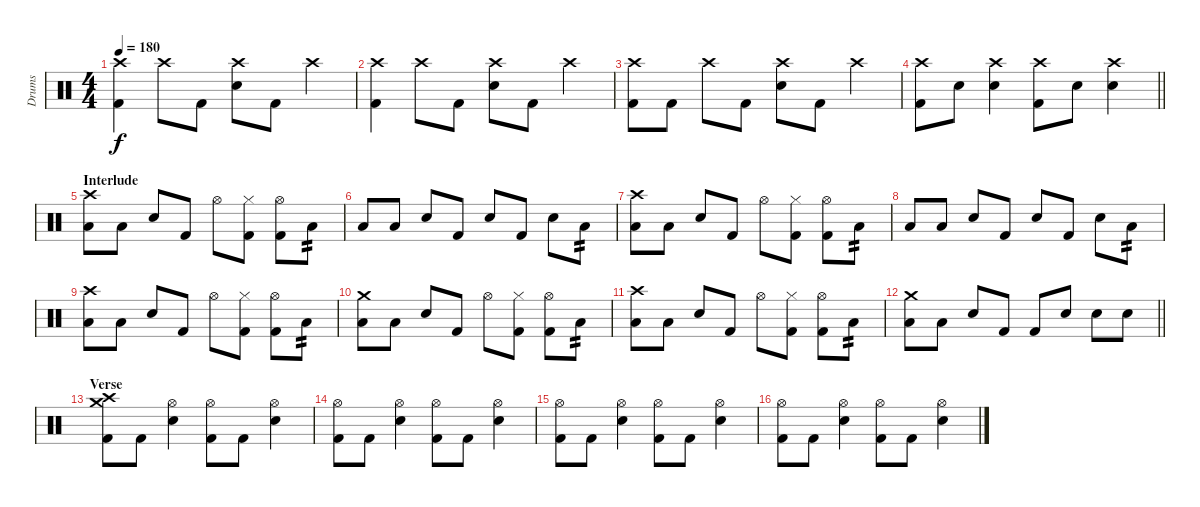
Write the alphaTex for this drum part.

\track ("Drums" "Drums") {instrument percussion}
\staff {score}
\articulation defaults
\ts (4 4)
\tempo 180
\clef neutral
\ks c
("Crash high (hit)" "Kick (hit) 2").4{dy f} "Crash high (hit)".8 "Kick (hit) 2".8 ("Electric Snare (hit)" "Crash high (hit)").8 "Kick (hit) 2".8 "Crash high (hit)".4 |
("Crash high (hit)" "Kick (hit) 2").4 "Crash high (hit)".8 "Kick (hit) 2".8 ("Electric Snare (hit)" "Crash high (hit)").8 "Kick (hit) 2".8 "Crash high (hit)".4 |
("Crash high (hit)" "Kick (hit) 2").8 "Kick (hit) 2".8 "Crash high (hit)".8 "Kick (hit) 2".8 ("Electric Snare (hit)" "Crash high (hit)").8 "Kick (hit) 2".8 "Crash high (hit)".4 |
\barLineRight lightlight
("Crash high (hit)" "Kick (hit) 2").8 "Electric Snare (hit)".8 ("Electric Snare (hit)" "Crash high (hit)").4 ("Crash high (hit)" "Kick (hit) 2").8 "Electric Snare (hit)".8 ("Electric Snare (hit)" "Crash high (hit)").4 |
\section ("" "Interlude")
("Crash high (hit)" "Low Floor Tom (hit)").8 "Low Floor Tom (hit)".8 "Electric Snare (hit)".8 "Kick (hit) 2".8 "Hi-Hat (open)".8 ("Hi-Hat (closed)" "Kick (hit) 2").8 ("Hi-Hat (open)" "Kick (hit) 2").8 "Low Floor Tom (hit)".8{tp 2} |
"Low Floor Tom (hit)".8 "Low Floor Tom (hit)".8 "Electric Snare (hit)".8 "Kick (hit) 2".8 "Electric Snare (hit)".8 "Kick (hit) 2".8 "Electric Snare (hit)".8 "Low Floor Tom (hit)".8{tp 2} |
("Crash high (hit)" "Low Floor Tom (hit)").8 "Low Floor Tom (hit)".8 "Electric Snare (hit)".8 "Kick (hit) 2".8 "Hi-Hat (open)".8 ("Hi-Hat (closed)" "Kick (hit) 2").8 ("Hi-Hat (open)" "Kick (hit) 2").8 "Low Floor Tom (hit)".8{tp 2} |
"Low Floor Tom (hit)".8 "Low Floor Tom (hit)".8 "Electric Snare (hit)".8 "Kick (hit) 2".8 "Electric Snare (hit)".8 "Kick (hit) 2".8 "Electric Snare (hit)".8 "Low Floor Tom (hit)".8{tp 2} |
("Crash high (hit)" "Low Floor Tom (hit)").8 "Low Floor Tom (hit)".8 "Electric Snare (hit)".8 "Kick (hit) 2".8 "Hi-Hat (open)".8 ("Hi-Hat (closed)" "Kick (hit) 2").8 ("Hi-Hat (open)" "Kick (hit) 2").8 "Low Floor Tom (hit)".8{tp 2} |
("Crash medium (hit)" "Low Floor Tom (hit)").8 "Low Floor Tom (hit)".8 "Electric Snare (hit)".8 "Kick (hit) 2".8 "Hi-Hat (open)".8 ("Hi-Hat (closed)" "Kick (hit) 2").8 ("Hi-Hat (open)" "Kick (hit) 2").8 "Low Floor Tom (hit)".8{tp 2} |
("Crash high (hit)" "Low Floor Tom (hit)").8 "Low Floor Tom (hit)".8 "Electric Snare (hit)".8 "Kick (hit) 2".8 "Hi-Hat (open)".8 ("Hi-Hat (closed)" "Kick (hit) 2").8 ("Hi-Hat (open)" "Kick (hit) 2").8 "Low Floor Tom (hit)".8{tp 2} |
\barLineRight lightlight
("Crash medium (hit)" "Low Floor Tom (hit)").8 "Low Floor Tom (hit)".8 "Electric Snare (hit)".8 "Kick (hit) 2".8 "Kick (hit) 2".8 "Electric Snare (hit)".8 "Electric Snare (hit)".8 "Electric Snare (hit)".8 |
\section ("" "Verse")
("Crash high (hit)" "Crash medium (hit)" "Kick (hit) 2").8 "Kick (hit) 2".8 ("Electric Snare (hit)" "Hi-Hat (open)").4 ("Hi-Hat (open)" "Kick (hit) 2").8 "Kick (hit) 2".8 ("Electric Snare (hit)" "Hi-Hat (open)").4 |
("Hi-Hat (open)" "Kick (hit) 2").8 "Kick (hit) 2".8 ("Electric Snare (hit)" "Hi-Hat (open)").4 ("Hi-Hat (open)" "Kick (hit) 2").8 "Kick (hit) 2".8 ("Electric Snare (hit)" "Hi-Hat (open)").4 |
("Hi-Hat (open)" "Kick (hit) 2").8 "Kick (hit) 2".8 ("Electric Snare (hit)" "Hi-Hat (open)").4 ("Hi-Hat (open)" "Kick (hit) 2").8 "Kick (hit) 2".8 ("Electric Snare (hit)" "Hi-Hat (open)").4 |
("Hi-Hat (open)" "Kick (hit) 2").8 "Kick (hit) 2".8 ("Electric Snare (hit)" "Hi-Hat (open)").4 ("Hi-Hat (open)" "Kick (hit) 2").8 "Kick (hit) 2".8 ("Electric Snare (hit)" "Hi-Hat (open)").4
